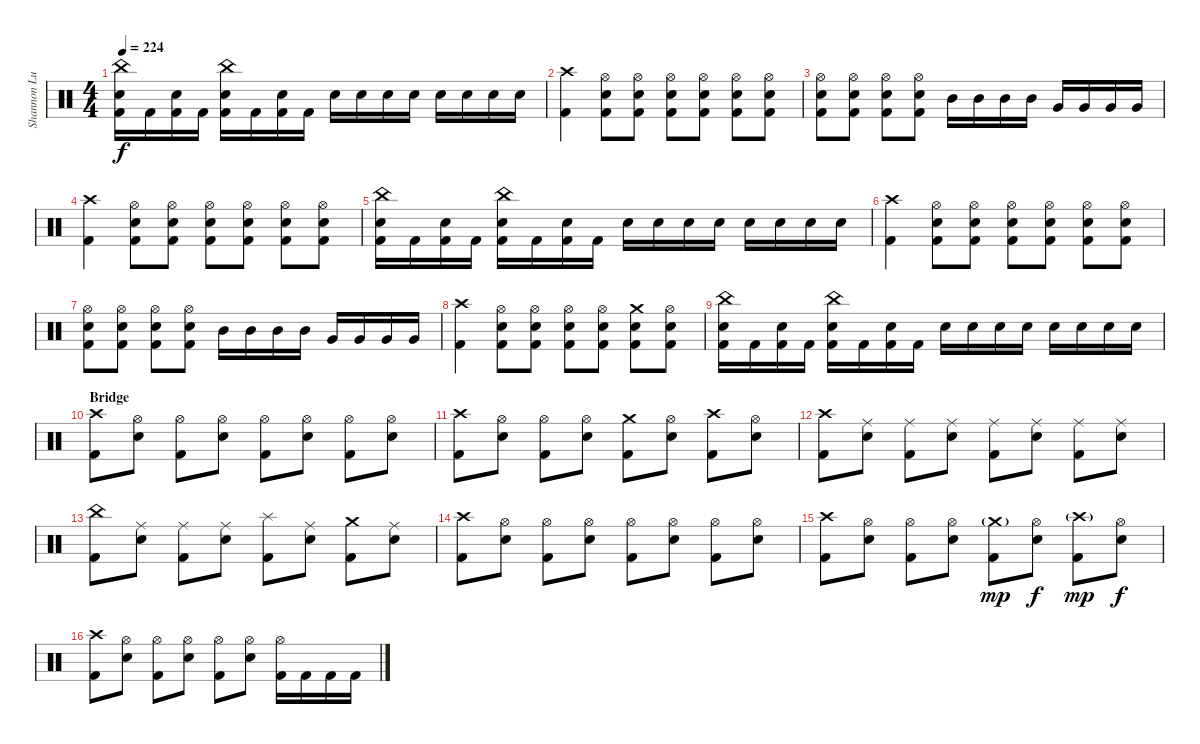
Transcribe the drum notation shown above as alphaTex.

\track ("Shannon Lucas (Drums)" "Shannon Lu") {instrument percussion}
\staff {score}
\articulation defaults
\ts (4 4)
\tempo 224
\clef neutral
\ks c
("China (hit)" "Snare (hit) 2" "Kick (hit) 2").16{dy f} "Kick (hit) 2".16 ("Snare (hit) 2" "Kick (hit) 2").16 "Kick (hit) 2".16 ("China (hit)" "Snare (hit) 2" "Kick (hit) 2").16 "Kick (hit) 2".16 ("Snare (hit) 2" "Kick (hit) 2").16 "Kick (hit) 2".16 "Snare (hit) 2".16 "Snare (hit) 2".16 "Snare (hit) 2".16 "Snare (hit) 2".16 "Snare (hit) 2".16 "Snare (hit) 2".16 "Snare (hit) 2".16 "Snare (hit) 2".16 |
("Crash high (hit)" "Kick (hit) 2").4 ("Hi-Hat (open)" "Snare (hit) 2" "Kick (hit) 2").8 ("Hi-Hat (open)" "Snare (hit) 2" "Kick (hit) 2").8 ("Hi-Hat (open)" "Snare (hit) 2" "Kick (hit) 2").8 ("Hi-Hat (open)" "Snare (hit) 2" "Kick (hit) 2").8 ("Hi-Hat (open)" "Snare (hit) 2" "Kick (hit) 2").8 ("Hi-Hat (open)" "Snare (hit) 2" "Kick (hit) 2").8 |
("Hi-Hat (open)" "Snare (hit) 2" "Kick (hit) 2").8 ("Hi-Hat (open)" "Snare (hit) 2" "Kick (hit) 2").8 ("Hi-Hat (open)" "Snare (hit) 2" "Kick (hit) 2").8 ("Hi-Hat (open)" "Snare (hit) 2" "Kick (hit) 2").8 "Mid Tom (hit)".16 "Mid Tom (hit)".16 "Mid Tom (hit)".16 "Mid Tom (hit)".16 "Very Low Tom (hit)".16 "Very Low Tom (hit)".16 "Very Low Tom (hit)".16 "Very Low Tom (hit)".16 |
("Crash high (hit)" "Kick (hit) 2").4 ("Hi-Hat (open)" "Snare (hit) 2" "Kick (hit) 2").8 ("Hi-Hat (open)" "Snare (hit) 2" "Kick (hit) 2").8 ("Hi-Hat (open)" "Snare (hit) 2" "Kick (hit) 2").8 ("Hi-Hat (open)" "Snare (hit) 2" "Kick (hit) 2").8 ("Hi-Hat (open)" "Snare (hit) 2" "Kick (hit) 2").8 ("Hi-Hat (open)" "Snare (hit) 2" "Kick (hit) 2").8 |
("China (hit)" "Snare (hit) 2" "Kick (hit) 2").16 "Kick (hit) 2".16 ("Snare (hit) 2" "Kick (hit) 2").16 "Kick (hit) 2".16 ("China (hit)" "Snare (hit) 2" "Kick (hit) 2").16 "Kick (hit) 2".16 ("Snare (hit) 2" "Kick (hit) 2").16 "Kick (hit) 2".16 "Snare (hit) 2".16 "Snare (hit) 2".16 "Snare (hit) 2".16 "Snare (hit) 2".16 "Snare (hit) 2".16 "Snare (hit) 2".16 "Snare (hit) 2".16 "Snare (hit) 2".16 |
("Crash high (hit)" "Kick (hit) 2").4 ("Hi-Hat (open)" "Snare (hit) 2" "Kick (hit) 2").8 ("Hi-Hat (open)" "Snare (hit) 2" "Kick (hit) 2").8 ("Hi-Hat (open)" "Snare (hit) 2" "Kick (hit) 2").8 ("Hi-Hat (open)" "Snare (hit) 2" "Kick (hit) 2").8 ("Hi-Hat (open)" "Snare (hit) 2" "Kick (hit) 2").8 ("Hi-Hat (open)" "Snare (hit) 2" "Kick (hit) 2").8 |
("Hi-Hat (open)" "Snare (hit) 2" "Kick (hit) 2").8 ("Hi-Hat (open)" "Snare (hit) 2" "Kick (hit) 2").8 ("Hi-Hat (open)" "Snare (hit) 2" "Kick (hit) 2").8 ("Hi-Hat (open)" "Snare (hit) 2" "Kick (hit) 2").8 "Mid Tom (hit)".16 "Mid Tom (hit)".16 "Mid Tom (hit)".16 "Mid Tom (hit)".16 "Very Low Tom (hit)".16 "Very Low Tom (hit)".16 "Very Low Tom (hit)".16 "Very Low Tom (hit)".16 |
("Crash high (hit)" "Kick (hit) 2").4 ("Hi-Hat (open)" "Snare (hit) 2" "Kick (hit) 2").8 ("Hi-Hat (open)" "Snare (hit) 2" "Kick (hit) 2").8 ("Hi-Hat (open)" "Snare (hit) 2" "Kick (hit) 2").8 ("Hi-Hat (open)" "Snare (hit) 2" "Kick (hit) 2").8 ("Crash medium (hit)" "Snare (hit) 2" "Kick (hit) 2").8 ("Hi-Hat (open)" "Snare (hit) 2" "Kick (hit) 2").8 |
("China (hit)" "Snare (hit) 2" "Kick (hit) 2").16 "Kick (hit) 2".16 ("Snare (hit) 2" "Kick (hit) 2").16 "Kick (hit) 2".16 ("China (hit)" "Snare (hit) 2" "Kick (hit) 2").16 "Kick (hit) 2".16 ("Snare (hit) 2" "Kick (hit) 2").16 "Kick (hit) 2".16 "Snare (hit) 2".16 "Snare (hit) 2".16 "Snare (hit) 2".16 "Snare (hit) 2".16 "Snare (hit) 2".16 "Snare (hit) 2".16 "Snare (hit) 2".16 "Snare (hit) 2".16 |
\section ("" "Bridge")
("Crash high (hit)" "Kick (hit) 2").8{balance 8} ("Hi-Hat (open)" "Snare (hit) 2").8 ("Hi-Hat (open)" "Kick (hit) 2").8 ("Hi-Hat (open)" "Snare (hit) 2").8 ("Hi-Hat (open)" "Kick (hit) 2").8 ("Hi-Hat (open)" "Snare (hit) 2").8 ("Hi-Hat (open)" "Kick (hit) 2").8 ("Hi-Hat (open)" "Snare (hit) 2").8 |
("Crash high (hit)" "Kick (hit) 2").8 ("Hi-Hat (open)" "Snare (hit) 2").8 ("Hi-Hat (open)" "Kick (hit) 2").8 ("Hi-Hat (open)" "Snare (hit) 2").8 ("Crash medium (hit)" "Kick (hit) 2").8 ("Hi-Hat (open)" "Snare (hit) 2").8 ("Crash high (hit)" "Kick (hit) 2").8 ("Hi-Hat (open)" "Snare (hit) 2").8 |
("Crash high (hit)" "Kick (hit) 2").8 ("Ride (middle)" "Snare (hit) 2").8 ("Ride (middle)" "Kick (hit) 2").8 ("Ride (middle)" "Snare (hit) 2").8 ("Ride (middle)" "Kick (hit) 2").8 ("Ride (middle)" "Snare (hit) 2").8 ("Ride (middle)" "Kick (hit) 2").8 ("Ride (middle)" "Snare (hit) 2").8 |
("China (hit)" "Kick (hit) 2").8 ("Ride (middle)" "Snare (hit) 2").8 ("Ride (middle)" "Kick (hit) 2").8 ("Ride (middle)" "Snare (hit) 2").8 ("Splash (hit)" "Kick (hit) 2").8 ("Ride (middle)" "Snare (hit) 2").8 ("Crash medium (hit)" "Kick (hit) 2").8 ("Ride (middle)" "Snare (hit) 2").8 |
("Crash high (hit)" "Kick (hit) 2").8{balance 8} ("Hi-Hat (open)" "Snare (hit) 2").8 ("Hi-Hat (open)" "Kick (hit) 2").8 ("Hi-Hat (open)" "Snare (hit) 2").8 ("Hi-Hat (open)" "Kick (hit) 2").8 ("Hi-Hat (open)" "Snare (hit) 2").8 ("Hi-Hat (open)" "Kick (hit) 2").8 ("Hi-Hat (open)" "Snare (hit) 2").8 |
("Crash high (hit)" "Kick (hit) 2").8 ("Hi-Hat (open)" "Snare (hit) 2").8 ("Hi-Hat (open)" "Kick (hit) 2").8 ("Hi-Hat (open)" "Snare (hit) 2").8 ("Crash medium (hit)"{g} "Kick (hit) 2").8{dy mp} ("Hi-Hat (open)" "Snare (hit) 2").8{dy f} ("Crash high (hit)"{g} "Kick (hit) 2").8{dy mp} ("Hi-Hat (open)" "Snare (hit) 2").8{dy f} |
("Crash high (hit)" "Kick (hit) 2").8{balance 8} ("Hi-Hat (open)" "Snare (hit) 2").8 ("Hi-Hat (open)" "Kick (hit) 2").8 ("Hi-Hat (open)" "Snare (hit) 2").8 ("Hi-Hat (open)" "Kick (hit) 2").8 ("Hi-Hat (open)" "Snare (hit) 2").8 ("Hi-Hat (open)" "Kick (hit) 2").16 "Kick (hit) 2".16 "Kick (hit) 2".16 "Kick (hit) 2".16
